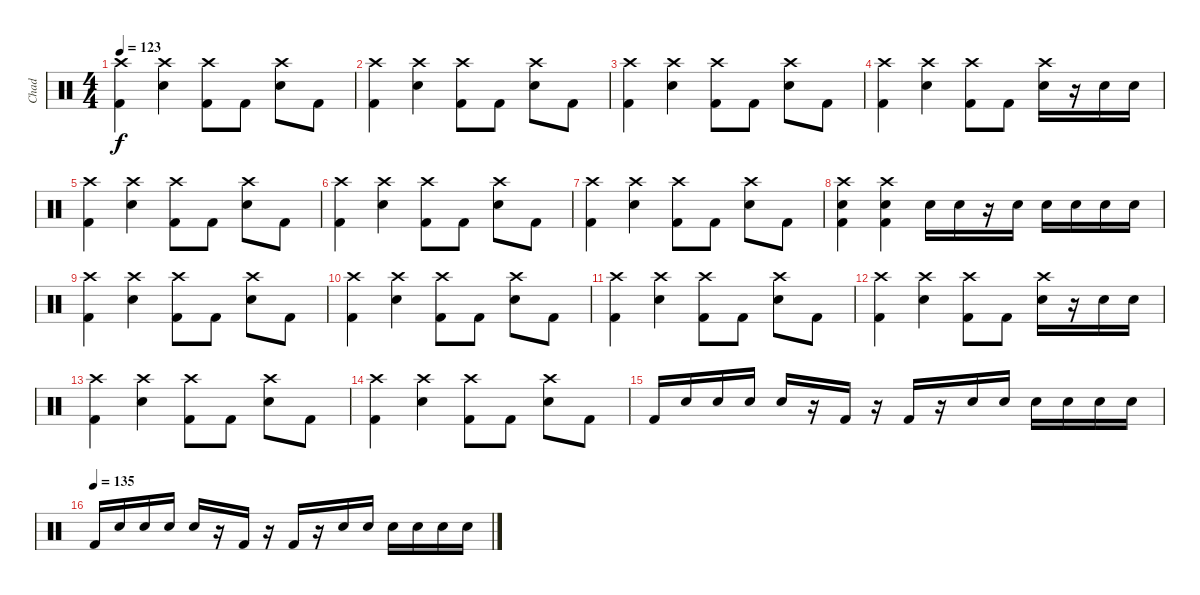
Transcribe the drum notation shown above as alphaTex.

\track ("Chad" "Chad") {instrument percussion}
\staff {score}
\articulation defaults
\ts (4 4)
\tempo 123
\clef neutral
\ks c
("Crash high (hit)" "Kick (hit) 2").4{dy f} ("Crash high (hit)" "Electric Snare (hit)").4 ("Crash high (hit)" "Kick (hit) 2").8 "Kick (hit) 2".8 ("Crash high (hit)" "Electric Snare (hit)").8 "Kick (hit) 2".8 |
("Crash high (hit)" "Kick (hit) 2").4 ("Crash high (hit)" "Electric Snare (hit)").4 ("Crash high (hit)" "Kick (hit) 2").8 "Kick (hit) 2".8 ("Crash high (hit)" "Electric Snare (hit)").8 "Kick (hit) 2".8 |
("Crash high (hit)" "Kick (hit) 2").4 ("Crash high (hit)" "Electric Snare (hit)").4 ("Crash high (hit)" "Kick (hit) 2").8 "Kick (hit) 2".8 ("Crash high (hit)" "Electric Snare (hit)").8 "Kick (hit) 2".8 |
("Crash high (hit)" "Kick (hit) 2").4 ("Crash high (hit)" "Electric Snare (hit)").4 ("Crash high (hit)" "Kick (hit) 2").8 "Kick (hit) 2".8 ("Crash high (hit)" "Electric Snare (hit)").16 r.16 "Electric Snare (hit)".16 "Electric Snare (hit)".16 |
("Crash high (hit)" "Kick (hit) 2").4 ("Crash high (hit)" "Electric Snare (hit)").4 ("Crash high (hit)" "Kick (hit) 2").8 "Kick (hit) 2".8 ("Crash high (hit)" "Electric Snare (hit)").8 "Kick (hit) 2".8 |
("Crash high (hit)" "Kick (hit) 2").4 ("Crash high (hit)" "Electric Snare (hit)").4 ("Crash high (hit)" "Kick (hit) 2").8 "Kick (hit) 2".8 ("Crash high (hit)" "Electric Snare (hit)").8 "Kick (hit) 2".8 |
("Crash high (hit)" "Kick (hit) 2").4 ("Crash high (hit)" "Electric Snare (hit)").4 ("Crash high (hit)" "Kick (hit) 2").8 "Kick (hit) 2".8 ("Crash high (hit)" "Electric Snare (hit)").8 "Kick (hit) 2".8 |
("Crash high (hit)" "Electric Snare (hit)" "Kick (hit) 2").4 ("Crash high (hit)" "Electric Snare (hit)" "Kick (hit) 2").4 "Electric Snare (hit)".16 "Electric Snare (hit)".16 r.16 "Electric Snare (hit)".16 "Electric Snare (hit)".16 "Electric Snare (hit)".16 "Electric Snare (hit)".16 "Electric Snare (hit)".16 |
("Crash high (hit)" "Kick (hit) 2").4 ("Crash high (hit)" "Electric Snare (hit)").4 ("Crash high (hit)" "Kick (hit) 2").8 "Kick (hit) 2".8 ("Crash high (hit)" "Electric Snare (hit)").8 "Kick (hit) 2".8 |
("Crash high (hit)" "Kick (hit) 2").4 ("Crash high (hit)" "Electric Snare (hit)").4 ("Crash high (hit)" "Kick (hit) 2").8 "Kick (hit) 2".8 ("Crash high (hit)" "Electric Snare (hit)").8 "Kick (hit) 2".8 |
("Crash high (hit)" "Kick (hit) 2").4 ("Crash high (hit)" "Electric Snare (hit)").4 ("Crash high (hit)" "Kick (hit) 2").8 "Kick (hit) 2".8 ("Crash high (hit)" "Electric Snare (hit)").8 "Kick (hit) 2".8 |
("Crash high (hit)" "Kick (hit) 2").4 ("Crash high (hit)" "Electric Snare (hit)").4 ("Crash high (hit)" "Kick (hit) 2").8 "Kick (hit) 2".8 ("Crash high (hit)" "Electric Snare (hit)").16 r.16 "Electric Snare (hit)".16 "Electric Snare (hit)".16 |
("Crash high (hit)" "Kick (hit) 2").4 ("Crash high (hit)" "Electric Snare (hit)").4 ("Crash high (hit)" "Kick (hit) 2").8 "Kick (hit) 2".8 ("Crash high (hit)" "Electric Snare (hit)").8 "Kick (hit) 2".8 |
("Crash high (hit)" "Kick (hit) 2").4 ("Crash high (hit)" "Electric Snare (hit)").4 ("Crash high (hit)" "Kick (hit) 2").8 "Kick (hit) 2".8 ("Crash high (hit)" "Electric Snare (hit)").8 "Kick (hit) 2".8 |
"Kick (hit) 2".16 "Electric Snare (hit)".16 "Electric Snare (hit)".16 "Electric Snare (hit)".16 "Electric Snare (hit)".16 r.16 "Kick (hit) 2".16 r.16 "Kick (hit) 2".16 r.16 "Electric Snare (hit)".16 "Electric Snare (hit)".16 "Electric Snare (hit)".16 "Electric Snare (hit)".16 "Electric Snare (hit)".16 "Electric Snare (hit)".16 |
\tempo (135)
"Kick (hit) 2".16 "Electric Snare (hit)".16 "Electric Snare (hit)".16 "Electric Snare (hit)".16 "Electric Snare (hit)".16 r.16 "Kick (hit) 2".16 r.16 "Kick (hit) 2".16 r.16 "Electric Snare (hit)".16 "Electric Snare (hit)".16 "Electric Snare (hit)".16 "Electric Snare (hit)".16 "Electric Snare (hit)".16 "Electric Snare (hit)".16
